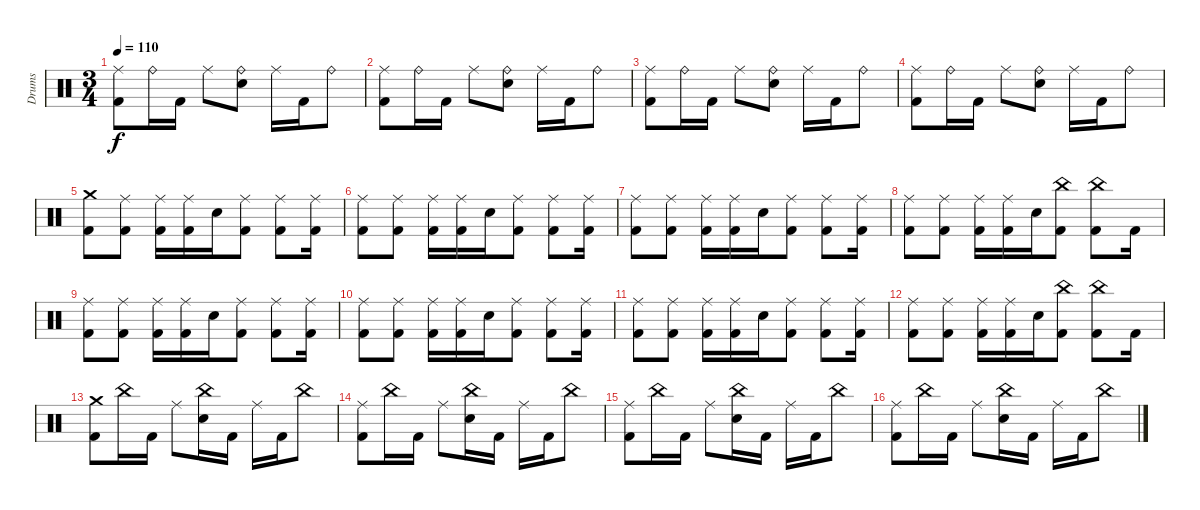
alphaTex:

\track ("Drums" "Drums") {instrument percussion}
\staff {score}
\articulation defaults
\ts (3 4)
\tempo 110
\clef neutral
\ks c
("Kick (hit) 2" "Ride (middle)").8{dy f} "Ride (bell)".16 "Kick (hit) 2".16 "Ride (middle)".8 ("Ride (bell)" "Electric Snare (hit)").8 "Ride (middle)".16 "Kick (hit) 2".16 "Ride (bell)".8 |
("Kick (hit) 2" "Ride (middle)").8 "Ride (bell)".16 "Kick (hit) 2".16 "Ride (middle)".8 ("Ride (bell)" "Electric Snare (hit)").8 "Ride (middle)".16 "Kick (hit) 2".16 "Ride (bell)".8 |
("Kick (hit) 2" "Ride (middle)").8 "Ride (bell)".16 "Kick (hit) 2".16 "Ride (middle)".8 ("Ride (bell)" "Electric Snare (hit)").8 "Ride (middle)".16 "Kick (hit) 2".16 "Ride (bell)".8 |
("Kick (hit) 2" "Ride (middle)").8 "Ride (bell)".16 "Kick (hit) 2".16 "Ride (middle)".8 ("Ride (bell)" "Electric Snare (hit)").8 "Ride (middle)".16 "Kick (hit) 2".16 "Ride (bell)".8 |
("Kick (hit) 2" "Crash medium (hit)").8 ("Kick (hit) 2" "Ride (middle)").8 ("Kick (hit) 2" "Ride (middle)").16 ("Kick (hit) 2" "Ride (middle)").16 "Electric Snare (hit)".16 ("Kick (hit) 2" "Ride (middle)").8 ("Kick (hit) 2" "Ride (middle)").8 ("Kick (hit) 2" "Ride (middle)").16 |
("Kick (hit) 2" "Ride (middle)").8 ("Kick (hit) 2" "Ride (middle)").8 ("Kick (hit) 2" "Ride (middle)").16 ("Kick (hit) 2" "Ride (middle)").16 "Electric Snare (hit)".16 ("Kick (hit) 2" "Ride (middle)").8 ("Kick (hit) 2" "Ride (middle)").8 ("Kick (hit) 2" "Ride (middle)").16 |
("Kick (hit) 2" "Ride (middle)").8 ("Kick (hit) 2" "Ride (middle)").8 ("Kick (hit) 2" "Ride (middle)").16 ("Kick (hit) 2" "Ride (middle)").16 "Electric Snare (hit)".16 ("Kick (hit) 2" "Ride (middle)").8 ("Kick (hit) 2" "Ride (middle)").8 ("Kick (hit) 2" "Ride (middle)").16 |
("Kick (hit) 2" "Ride (middle)").8 ("Kick (hit) 2" "Ride (middle)").8 ("Kick (hit) 2" "Ride (middle)").16 ("Kick (hit) 2" "Ride (middle)").16 "Electric Snare (hit)".16 ("Kick (hit) 2" "China (hit)").8 ("Kick (hit) 2" "China (hit)").8 "Kick (hit) 2".16 |
("Kick (hit) 2" "Ride (middle)").8 ("Kick (hit) 2" "Ride (middle)").8 ("Kick (hit) 2" "Ride (middle)").16 ("Kick (hit) 2" "Ride (middle)").16 "Electric Snare (hit)".16 ("Kick (hit) 2" "Ride (middle)").8 ("Kick (hit) 2" "Ride (middle)").8 ("Kick (hit) 2" "Ride (middle)").16 |
("Kick (hit) 2" "Ride (middle)").8 ("Kick (hit) 2" "Ride (middle)").8 ("Kick (hit) 2" "Ride (middle)").16 ("Kick (hit) 2" "Ride (middle)").16 "Electric Snare (hit)".16 ("Kick (hit) 2" "Ride (middle)").8 ("Kick (hit) 2" "Ride (middle)").8 ("Kick (hit) 2" "Ride (middle)").16 |
("Kick (hit) 2" "Ride (middle)").8 ("Kick (hit) 2" "Ride (middle)").8 ("Kick (hit) 2" "Ride (middle)").16 ("Kick (hit) 2" "Ride (middle)").16 "Electric Snare (hit)".16 ("Kick (hit) 2" "Ride (middle)").8 ("Kick (hit) 2" "Ride (middle)").8 ("Kick (hit) 2" "Ride (middle)").16 |
("Kick (hit) 2" "Ride (middle)").8 ("Kick (hit) 2" "Ride (middle)").8 ("Kick (hit) 2" "Ride (middle)").16 ("Kick (hit) 2" "Ride (middle)").16 "Electric Snare (hit)".16 ("Kick (hit) 2" "China (hit)").8 ("Kick (hit) 2" "China (hit)").8 "Kick (hit) 2".16 |
("Kick (hit) 2" "Crash medium (hit)").8 "China (hit)".16 "Kick (hit) 2".16 "Ride (middle)".8 ("China (hit)" "Electric Snare (hit)").16 "Kick (hit) 2".16 "Ride (middle)".16 "Kick (hit) 2".16 "China (hit)".8 |
("Kick (hit) 2" "Ride (middle)").8 "China (hit)".16 "Kick (hit) 2".16 "Ride (middle)".8 ("China (hit)" "Electric Snare (hit)").16 "Kick (hit) 2".16 "Ride (middle)".16 "Kick (hit) 2".16 "China (hit)".8 |
("Kick (hit) 2" "Ride (middle)").8 "China (hit)".16 "Kick (hit) 2".16 "Ride (middle)".8 ("China (hit)" "Electric Snare (hit)").16 "Kick (hit) 2".16 "Ride (middle)".16 "Kick (hit) 2".16 "China (hit)".8 |
("Kick (hit) 2" "Ride (middle)").8 "China (hit)".16 "Kick (hit) 2".16 "Ride (middle)".8 ("China (hit)" "Electric Snare (hit)").16 "Kick (hit) 2".16 "Ride (middle)".16 "Kick (hit) 2".16 "China (hit)".8
